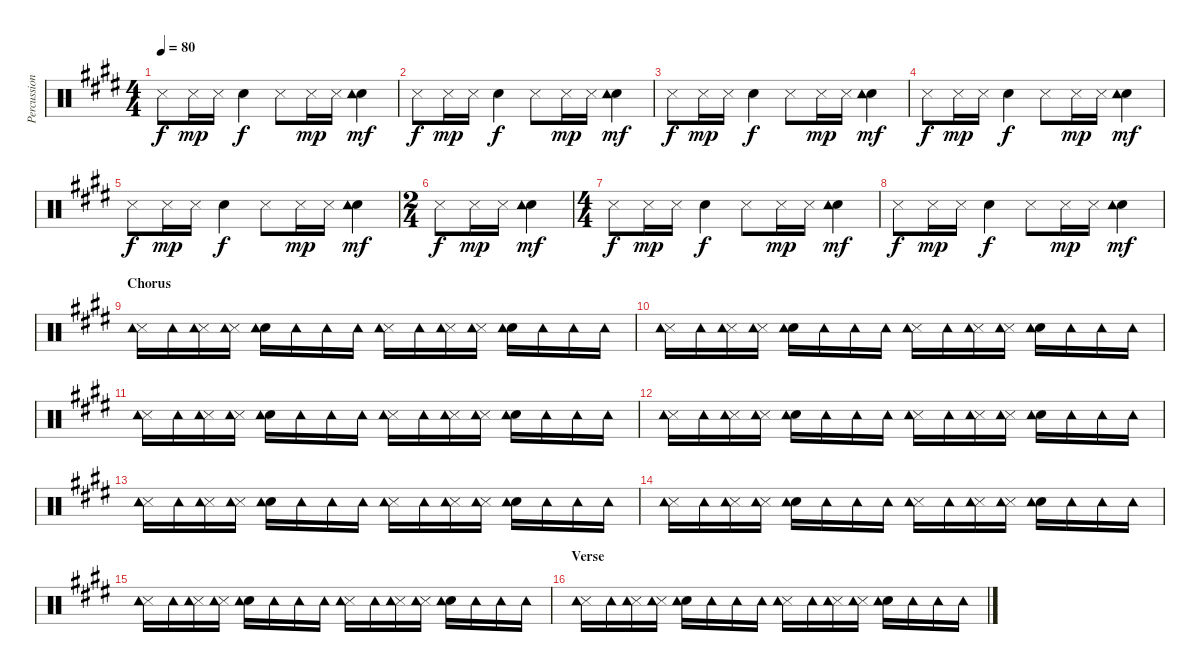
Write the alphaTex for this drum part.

\track ("Percussion" "Percussion") {instrument percussion}
\staff {score}
\articulation defaults
\ts (4 4)
\tempo 80
\clef neutral
\ks c#minor "Metronome (hit)".8{dy f} "Metronome (hit)".16{dy mp} "Metronome (hit)".16 "Snare (hit) 2".4{dy f} "Metronome (hit)".8 "Metronome (hit)".16{dy mp} "Metronome (hit)".16
("Snare (hit) 2" "Tambourine (hit)").4{dy mf} |
"Metronome (hit)".8{dy f} "Metronome (hit)".16{dy mp} "Metronome (hit)".16 "Snare (hit) 2".4{dy f} "Metronome (hit)".8 "Metronome (hit)".16{dy mp} "Metronome (hit)".16 ("Snare (hit) 2" "Tambourine (hit)").4{dy mf} |
"Metronome (hit)".8{dy f} "Metronome (hit)".16{dy mp} "Metronome (hit)".16 "Snare (hit) 2".4{dy f} "Metronome (hit)".8 "Metronome (hit)".16{dy mp} "Metronome (hit)".16 ("Snare (hit) 2" "Tambourine (hit)").4{dy mf} |
"Metronome (hit)".8{dy f} "Metronome (hit)".16{dy mp} "Metronome (hit)".16 "Snare (hit) 2".4{dy f} "Metronome (hit)".8 "Metronome (hit)".16{dy mp} "Metronome (hit)".16 ("Snare (hit) 2" "Tambourine (hit)").4{dy mf} |
"Metronome (hit)".8{dy f} "Metronome (hit)".16{dy mp} "Metronome (hit)".16 "Snare (hit) 2".4{dy f} "Metronome (hit)".8 "Metronome (hit)".16{dy mp} "Metronome (hit)".16 ("Snare (hit) 2" "Tambourine (hit)").4{dy mf} |
\ts (2 4)
"Metronome (hit)".8{dy f} "Metronome (hit)".16{dy mp} "Metronome (hit)".16 ("Snare (hit) 2" "Tambourine (hit)").4{dy mf} |
\ts (4 4)
"Metronome (hit)".8{dy f} "Metronome (hit)".16{dy mp} "Metronome (hit)".16 "Snare (hit) 2".4{dy f} "Metronome (hit)".8 "Metronome (hit)".16{dy mp} "Metronome (hit)".16 ("Snare (hit) 2" "Tambourine (hit)").4{dy mf} |
"Metronome (hit)".8{dy f} "Metronome (hit)".16{dy mp} "Metronome (hit)".16 "Snare (hit) 2".4{dy f} "Metronome (hit)".8 "Metronome (hit)".16{dy mp} "Metronome (hit)".16 ("Snare (hit) 2" "Tambourine (hit)").4{dy mf} |
\section ("" "Chorus")
("Metronome (hit)" "Tambourine (hit)").16 "Tambourine (hit)".16 ("Metronome (hit)" "Tambourine (hit)").16 ("Metronome (hit)" "Tambourine (hit)").16 ("Snare (hit) 2" "Tambourine (hit)").16 "Tambourine (hit)".16 "Tambourine (hit)".16 "Tambourine (hit)".16 ("Metronome (hit)" "Tambourine (hit)").16 "Tambourine (hit)".16 ("Metronome (hit)" "Tambourine (hit)").16 ("Metronome (hit)" "Tambourine (hit)").16 ("Snare (hit) 2" "Tambourine (hit)").16 "Tambourine (hit)".16 "Tambourine (hit)".16 "Tambourine (hit)".16 |
("Metronome (hit)" "Tambourine (hit)").16 "Tambourine (hit)".16 ("Metronome (hit)" "Tambourine (hit)").16 ("Metronome (hit)" "Tambourine (hit)").16 ("Snare (hit) 2" "Tambourine (hit)").16 "Tambourine (hit)".16 "Tambourine (hit)".16 "Tambourine (hit)".16 ("Metronome (hit)" "Tambourine (hit)").16 "Tambourine (hit)".16 ("Metronome (hit)" "Tambourine (hit)").16 ("Metronome (hit)" "Tambourine (hit)").16 ("Snare (hit) 2" "Tambourine (hit)").16 "Tambourine (hit)".16 "Tambourine (hit)".16 "Tambourine (hit)".16 |
("Metronome (hit)" "Tambourine (hit)").16 "Tambourine (hit)".16 ("Metronome (hit)" "Tambourine (hit)").16 ("Metronome (hit)" "Tambourine (hit)").16 ("Snare (hit) 2" "Tambourine (hit)").16 "Tambourine (hit)".16 "Tambourine (hit)".16 "Tambourine (hit)".16 ("Metronome (hit)" "Tambourine (hit)").16 "Tambourine (hit)".16 ("Metronome (hit)" "Tambourine (hit)").16 ("Metronome (hit)" "Tambourine (hit)").16 ("Snare (hit) 2" "Tambourine (hit)").16 "Tambourine (hit)".16 "Tambourine (hit)".16 "Tambourine (hit)".16 |
("Metronome (hit)" "Tambourine (hit)").16 "Tambourine (hit)".16 ("Metronome (hit)" "Tambourine (hit)").16 ("Metronome (hit)" "Tambourine (hit)").16 ("Snare (hit) 2" "Tambourine (hit)").16 "Tambourine (hit)".16 "Tambourine (hit)".16 "Tambourine (hit)".16 ("Metronome (hit)" "Tambourine (hit)").16 "Tambourine (hit)".16 ("Metronome (hit)" "Tambourine (hit)").16 ("Metronome (hit)" "Tambourine (hit)").16 ("Snare (hit) 2" "Tambourine (hit)").16 "Tambourine (hit)".16 "Tambourine (hit)".16 "Tambourine (hit)".16 |
("Metronome (hit)" "Tambourine (hit)").16 "Tambourine (hit)".16 ("Metronome (hit)" "Tambourine (hit)").16 ("Metronome (hit)" "Tambourine (hit)").16 ("Snare (hit) 2" "Tambourine (hit)").16 "Tambourine (hit)".16 "Tambourine (hit)".16 "Tambourine (hit)".16 ("Metronome (hit)" "Tambourine (hit)").16 "Tambourine (hit)".16 ("Metronome (hit)" "Tambourine (hit)").16 ("Metronome (hit)" "Tambourine (hit)").16 ("Snare (hit) 2" "Tambourine (hit)").16 "Tambourine (hit)".16 "Tambourine (hit)".16 "Tambourine (hit)".16 |
("Metronome (hit)" "Tambourine (hit)").16 "Tambourine (hit)".16 ("Metronome (hit)" "Tambourine (hit)").16 ("Metronome (hit)" "Tambourine (hit)").16 ("Snare (hit) 2" "Tambourine (hit)").16 "Tambourine (hit)".16 "Tambourine (hit)".16 "Tambourine (hit)".16 ("Metronome (hit)" "Tambourine (hit)").16 "Tambourine (hit)".16 ("Metronome (hit)" "Tambourine (hit)").16 ("Metronome (hit)" "Tambourine (hit)").16 ("Snare (hit) 2" "Tambourine (hit)").16 "Tambourine (hit)".16 "Tambourine (hit)".16 "Tambourine (hit)".16 |
("Metronome (hit)" "Tambourine (hit)").16 "Tambourine (hit)".16 ("Metronome (hit)" "Tambourine (hit)").16 ("Metronome (hit)" "Tambourine (hit)").16 ("Snare (hit) 2" "Tambourine (hit)").16 "Tambourine (hit)".16 "Tambourine (hit)".16 "Tambourine (hit)".16 ("Metronome (hit)" "Tambourine (hit)").16 "Tambourine (hit)".16 ("Metronome (hit)" "Tambourine (hit)").16 ("Metronome (hit)" "Tambourine (hit)").16 ("Snare (hit) 2" "Tambourine (hit)").16 "Tambourine (hit)".16 "Tambourine (hit)".16 "Tambourine (hit)".16 |
\section ("" "Verse")
("Metronome (hit)" "Tambourine (hit)").16 "Tambourine (hit)".16 ("Metronome (hit)" "Tambourine (hit)").16 ("Metronome (hit)" "Tambourine (hit)").16 ("Snare (hit) 2" "Tambourine (hit)").16 "Tambourine (hit)".16 "Tambourine (hit)".16 "Tambourine (hit)".16 ("Metronome (hit)" "Tambourine (hit)").16 "Tambourine (hit)".16 ("Metronome (hit)" "Tambourine (hit)").16 ("Metronome (hit)" "Tambourine (hit)").16 ("Snare (hit) 2" "Tambourine (hit)").16 "Tambourine (hit)".16 "Tambourine (hit)".16 "Tambourine (hit)".16
